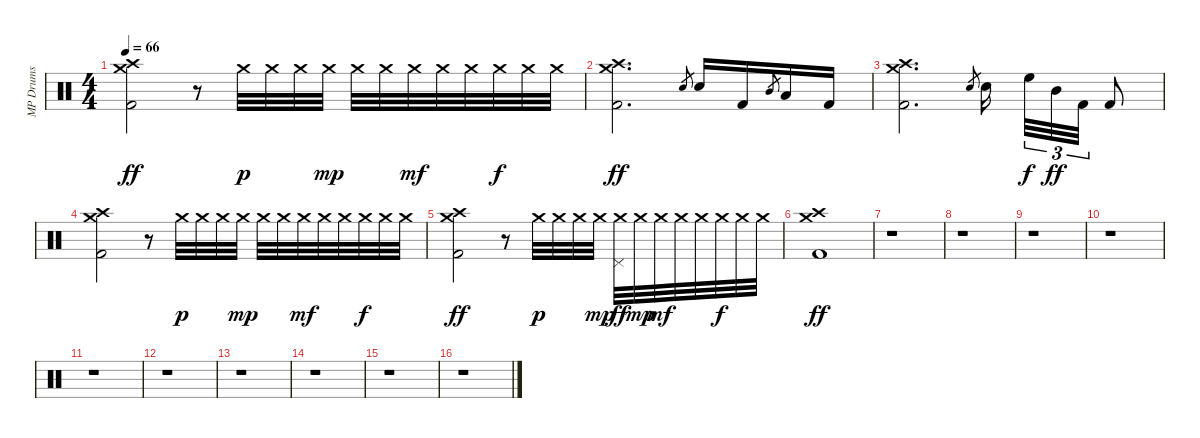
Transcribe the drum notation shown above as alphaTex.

\track ("MP Drums" "MP Drums") {instrument percussion}
\staff {score}
\articulation defaults
\ts (4 4)
\tempo 66
\clef neutral
\ks c
("Crash high (hit)" "Crash medium (hit)" "Kick (hit) 2").2{dy ff} r.8 "Crash medium (hit)".32{dy p} "Crash medium (hit)".32 "Crash medium (hit)".32 "Crash medium (hit)".32{dy mp} "Crash medium (hit)".32 "Crash medium (hit)".32 "Crash medium (hit)".32{dy mf} "Crash medium (hit)".32 "Crash medium (hit)".32 "Crash medium (hit)".32{dy f} "Crash medium (hit)".32 "Crash medium (hit)".32 |
("Crash high (hit)" "Crash medium (hit)" "Kick (hit) 2").2{d dy ff} "Snare (hit) 2".8{gr} "Snare (hit) 2".16 "Kick (hit) 2".16 "Mid Tom (hit)".8{gr} "Low Tom (hit)".16 "Kick (hit) 2".16 |
("Crash high (hit)" "Crash medium (hit)" "Kick (hit) 2").2{d} "Snare (hit) 2".8{gr} "Snare (hit) 2".16 "High Floor Tom (hit)".32{tu (3 2) dy f} "Mid Tom (hit)".32{tu (3 2) dy ff} "Kick (hit) 2".32{tu (3 2)} "Kick (hit) 2".8 |
("Crash high (hit)" "Crash medium (hit)" "Kick (hit) 2").2 r.8 "Crash medium (hit)".32{dy p} "Crash medium (hit)".32 "Crash medium (hit)".32 "Crash medium (hit)".32{dy mp} "Crash medium (hit)".32 "Crash medium (hit)".32 "Crash medium (hit)".32{dy mf} "Crash medium (hit)".32 "Crash medium (hit)".32 "Crash medium (hit)".32{dy f} "Crash medium (hit)".32 "Crash medium (hit)".32 |
("Crash high (hit)" "Crash medium (hit)" "Kick (hit) 2").2{dy ff} r.8 "Crash medium (hit)".32{dy p} "Crash medium (hit)".32 "Crash medium (hit)".32 "Crash medium (hit)".32{dy mp} ("Crash medium (hit)" "Pedal Hi-Hat (hit)").32{dy ff} "Crash medium (hit)".32{dy mp} "Crash medium (hit)".32{dy mf} "Crash medium (hit)".32 "Crash medium (hit)".32 "Crash medium (hit)".32{dy f} "Crash medium (hit)".32 "Crash medium (hit)".32 |
("Crash high (hit)" "Crash medium (hit)" "Kick (hit) 2").1{dy ff} |
r.1 |
r.1 |
r.1 |
r.1 |
r.1 |
r.1 |
r.1 |
r.1 |
r.1 |
r.1
